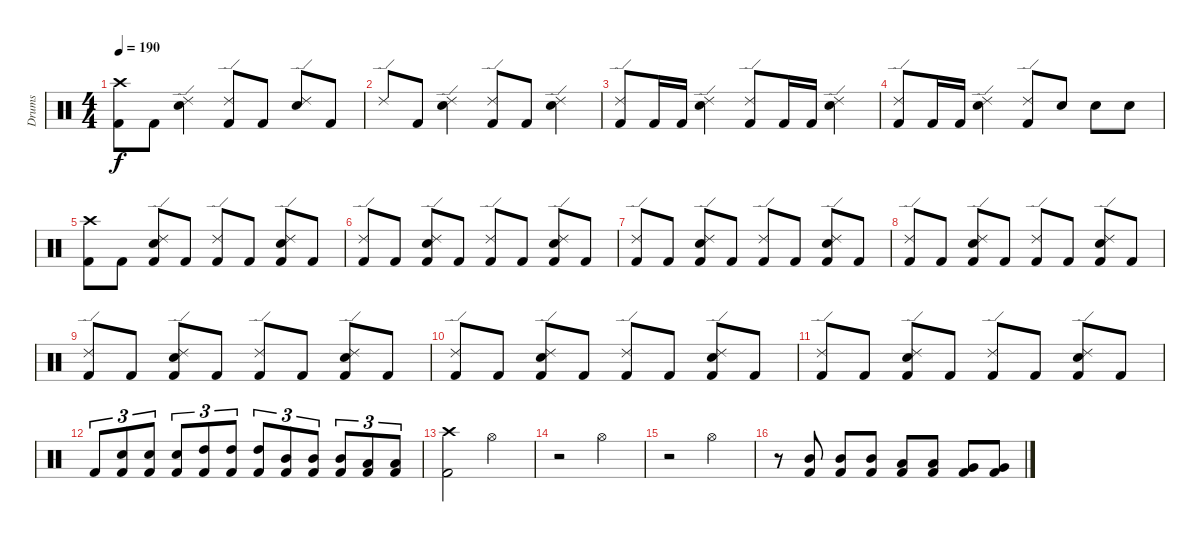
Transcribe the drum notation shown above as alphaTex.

\track ("Drums" "Drums") {instrument percussion}
\staff {score}
\articulation defaults
\ts (4 4)
\tempo 190
\clef neutral
\ks c
("Crash high (hit)" "Kick (hit) 2").8{dy f} "Kick (hit) 2".8 ("Ride (edge) 2" "Snare (hit) 2").4 ("Ride (edge) 2" "Kick (hit) 2").8 "Kick (hit) 2".8 ("Ride (edge) 2" "Snare (hit) 2").8 "Kick (hit) 2".8 |
"Ride (edge) 2".8 "Kick (hit) 2".8 ("Ride (edge) 2" "Snare (hit) 2").4 ("Ride (edge) 2" "Kick (hit) 2").8 "Kick (hit) 2".8 ("Ride (edge) 2" "Snare (hit) 2").4 |
("Ride (edge) 2" "Kick (hit) 2").8 "Kick (hit) 2".16 "Kick (hit) 2".16 ("Ride (edge) 2" "Snare (hit) 2").4 ("Ride (edge) 2" "Kick (hit) 2").8 "Kick (hit) 2".16 "Kick (hit) 2".16 ("Ride (edge) 2" "Snare (hit) 2").4 |
("Ride (edge) 2" "Kick (hit) 2").8 "Kick (hit) 2".16 "Kick (hit) 2".16 ("Ride (edge) 2" "Snare (hit) 2").4 ("Ride (edge) 2" "Kick (hit) 2").8 "Snare (hit) 2".8 "Snare (hit) 2".8 "Snare (hit) 2".8 |
("Crash high (hit)" "Kick (hit) 2").8 "Kick (hit) 2".8 ("Ride (edge) 2" "Snare (hit) 2" "Kick (hit) 2").8 "Kick (hit) 2".8 ("Ride (edge) 2" "Kick (hit) 2").8 "Kick (hit) 2".8 ("Ride (edge) 2" "Snare (hit) 2" "Kick (hit) 2").8 "Kick (hit) 2".8 |
("Ride (edge) 2" "Kick (hit) 2").8 "Kick (hit) 2".8 ("Ride (edge) 2" "Snare (hit) 2" "Kick (hit) 2").8 "Kick (hit) 2".8 ("Ride (edge) 2" "Kick (hit) 2").8 "Kick (hit) 2".8 ("Ride (edge) 2" "Snare (hit) 2" "Kick (hit) 2").8 "Kick (hit) 2".8 |
("Ride (edge) 2" "Kick (hit) 2").8 "Kick (hit) 2".8 ("Ride (edge) 2" "Snare (hit) 2" "Kick (hit) 2").8 "Kick (hit) 2".8 ("Ride (edge) 2" "Kick (hit) 2").8 "Kick (hit) 2".8 ("Ride (edge) 2" "Snare (hit) 2" "Kick (hit) 2").8 "Kick (hit) 2".8 |
("Ride (edge) 2" "Kick (hit) 2").8 "Kick (hit) 2".8 ("Ride (edge) 2" "Snare (hit) 2" "Kick (hit) 2").8 "Kick (hit) 2".8 ("Ride (edge) 2" "Kick (hit) 2").8 "Kick (hit) 2".8 ("Ride (edge) 2" "Snare (hit) 2" "Kick (hit) 2").8 "Kick (hit) 2".8 |
("Ride (edge) 2" "Kick (hit) 2").8 "Kick (hit) 2".8 ("Ride (edge) 2" "Snare (hit) 2" "Kick (hit) 2").8 "Kick (hit) 2".8 ("Ride (edge) 2" "Kick (hit) 2").8 "Kick (hit) 2".8 ("Ride (edge) 2" "Snare (hit) 2" "Kick (hit) 2").8 "Kick (hit) 2".8 |
("Ride (edge) 2" "Kick (hit) 2").8 "Kick (hit) 2".8 ("Ride (edge) 2" "Snare (hit) 2" "Kick (hit) 2").8 "Kick (hit) 2".8 ("Ride (edge) 2" "Kick (hit) 2").8 "Kick (hit) 2".8 ("Ride (edge) 2" "Snare (hit) 2" "Kick (hit) 2").8 "Kick (hit) 2".8 |
("Ride (edge) 2" "Kick (hit) 2").8 "Kick (hit) 2".8 ("Ride (edge) 2" "Snare (hit) 2" "Kick (hit) 2").8 "Kick (hit) 2".8 ("Ride (edge) 2" "Kick (hit) 2").8 "Kick (hit) 2".8 ("Ride (edge) 2" "Snare (hit) 2" "Kick (hit) 2").8 "Kick (hit) 2".8 |
"Kick (hit) 2".8{tu (3 2)} ("Snare (hit) 2" "Kick (hit) 2").8{tu (3 2)} ("Snare (hit) 2" "Kick (hit) 2").8{tu (3 2)} ("Snare (hit) 2" "Kick (hit) 2").8{tu (3 2)} ("High Tom (hit)" "Kick (hit) 2").8{tu (3 2)} ("High Tom (hit)" "Kick (hit) 2").8{tu (3 2)} ("High Tom (hit)" "Kick (hit) 2").8{tu (3 2)} ("Mid Tom (hit)" "Kick (hit) 2").8{tu (3 2)} ("Mid Tom (hit)" "Kick (hit) 2").8{tu (3 2)} ("Mid Tom (hit)" "Kick (hit) 2").8{tu (3 2)} ("Low Tom (hit)" "Kick (hit) 2").8{tu (3 2)} ("Low Tom (hit)" "Kick (hit) 2").8{tu (3 2)} |
("Crash high (hit)" "Kick (hit) 2").2 "Hi-Hat (open)".2 |
r.2 "Hi-Hat (open)".2 |
r.2 "Hi-Hat (open)".2 |
r.8 ("Mid Tom (hit)" "Kick (hit) 2").8 ("Mid Tom (hit)" "Kick (hit) 2").8 ("Mid Tom (hit)" "Kick (hit) 2").8 ("Low Tom (hit)" "Kick (hit) 2").8 ("Low Tom (hit)" "Kick (hit) 2").8 ("Very Low Tom (hit)" "Kick (hit) 2").8 ("Very Low Tom (hit)" "Kick (hit) 2").8
